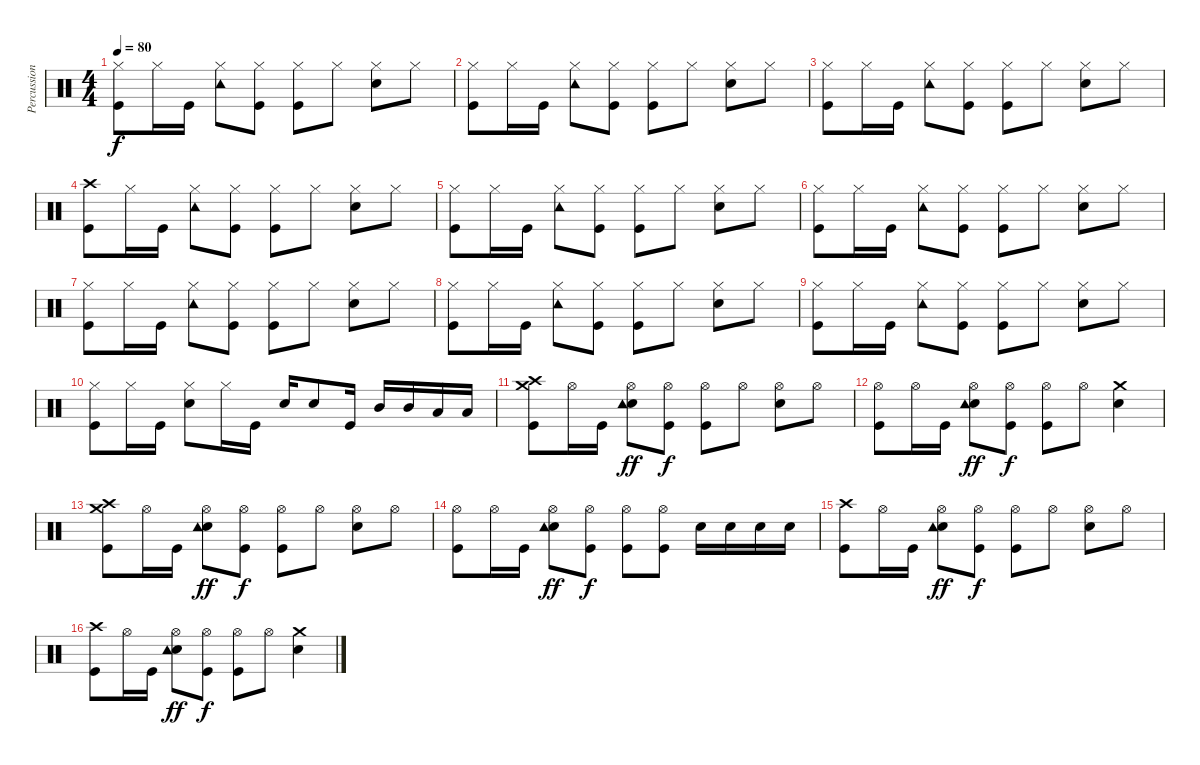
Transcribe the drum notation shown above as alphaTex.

\track ("Percussion" "Percussion") {instrument percussion}
\staff {score}
\articulation defaults
\ts (4 4)
\tempo 80
\clef neutral
\ks c
("Hi-Hat (closed)" "Kick (hit)").8{dy f} "Hi-Hat (closed)".16 "Kick (hit)".16 ("Tambourine (hit)" "Hi-Hat (closed)").8 ("Hi-Hat (closed)" "Kick (hit)").8 ("Hi-Hat (closed)" "Kick (hit)").8 "Hi-Hat (closed)".8 ("Electric Snare (hit)" "Hi-Hat (closed)").8 "Hi-Hat (closed)".8 |
("Hi-Hat (closed)" "Kick (hit)").8 "Hi-Hat (closed)".16 "Kick (hit)".16 ("Tambourine (hit)" "Hi-Hat (closed)").8 ("Hi-Hat (closed)" "Kick (hit)").8 ("Hi-Hat (closed)" "Kick (hit)").8 "Hi-Hat (closed)".8 ("Electric Snare (hit)" "Hi-Hat (closed)").8 "Hi-Hat (closed)".8 |
("Hi-Hat (closed)" "Kick (hit)").8 "Hi-Hat (closed)".16 "Kick (hit)".16 ("Tambourine (hit)" "Hi-Hat (closed)").8 ("Hi-Hat (closed)" "Kick (hit)").8 ("Hi-Hat (closed)" "Kick (hit)").8 "Hi-Hat (closed)".8 ("Electric Snare (hit)" "Hi-Hat (closed)").8 "Hi-Hat (closed)".8 |
("Crash high (hit)" "Kick (hit)").8 "Hi-Hat (closed)".16 "Kick (hit)".16 ("Tambourine (hit)" "Hi-Hat (closed)").8 ("Hi-Hat (closed)" "Kick (hit)").8 ("Hi-Hat (closed)" "Kick (hit)").8 "Hi-Hat (closed)".8 ("Electric Snare (hit)" "Hi-Hat (closed)").8 "Hi-Hat (closed)".8 |
("Hi-Hat (closed)" "Kick (hit)").8 "Hi-Hat (closed)".16 "Kick (hit)".16 ("Tambourine (hit)" "Hi-Hat (closed)").8 ("Hi-Hat (closed)" "Kick (hit)").8 ("Hi-Hat (closed)" "Kick (hit)").8 "Hi-Hat (closed)".8 ("Electric Snare (hit)" "Hi-Hat (closed)").8 "Hi-Hat (closed)".8 |
("Hi-Hat (closed)" "Kick (hit)").8 "Hi-Hat (closed)".16 "Kick (hit)".16 ("Tambourine (hit)" "Hi-Hat (closed)").8 ("Hi-Hat (closed)" "Kick (hit)").8 ("Hi-Hat (closed)" "Kick (hit)").8 "Hi-Hat (closed)".8 ("Electric Snare (hit)" "Hi-Hat (closed)").8 "Hi-Hat (closed)".8 |
("Hi-Hat (closed)" "Kick (hit)").8 "Hi-Hat (closed)".16 "Kick (hit)".16 ("Tambourine (hit)" "Hi-Hat (closed)").8 ("Hi-Hat (closed)" "Kick (hit)").8 ("Hi-Hat (closed)" "Kick (hit)").8 "Hi-Hat (closed)".8 ("Electric Snare (hit)" "Hi-Hat (closed)").8 "Hi-Hat (closed)".8 |
("Hi-Hat (closed)" "Kick (hit)").8 "Hi-Hat (closed)".16 "Kick (hit)".16 ("Tambourine (hit)" "Hi-Hat (closed)").8 ("Hi-Hat (closed)" "Kick (hit)").8 ("Hi-Hat (closed)" "Kick (hit)").8 "Hi-Hat (closed)".8 ("Electric Snare (hit)" "Hi-Hat (closed)").8 "Hi-Hat (closed)".8 |
("Hi-Hat (closed)" "Kick (hit)").8 "Hi-Hat (closed)".16 "Kick (hit)".16 ("Tambourine (hit)" "Hi-Hat (closed)").8 ("Hi-Hat (closed)" "Kick (hit)").8 ("Hi-Hat (closed)" "Kick (hit)").8 "Hi-Hat (closed)".8 ("Electric Snare (hit)" "Hi-Hat (closed)").8 "Hi-Hat (closed)".8 |
("Hi-Hat (closed)" "Kick (hit)").8 "Hi-Hat (closed)".16 "Kick (hit)".16 ("Electric Snare (hit)" "Hi-Hat (closed)").8 "Hi-Hat (closed)".16 "Kick (hit)".16 "Electric Snare (hit)".16 "Electric Snare (hit)".8 "Kick (hit)".16 "Mid Tom (hit)".16 "Mid Tom (hit)".16 "Low Tom (hit)".16 "Low Tom (hit)".16 |
("Crash high (hit)" "Crash medium (hit)" "Kick (hit)").8 "Hi-Hat (open)".16 "Kick (hit)".16 ("Electric Snare (hit)" "Hi-Hat (open)" "Tambourine (hit)").8{dy ff} ("Hi-Hat (open)" "Kick (hit)").8{dy f} ("Hi-Hat (open)" "Kick (hit)").8 "Hi-Hat (open)".8 ("Electric Snare (hit)" "Hi-Hat (open)").8 "Hi-Hat (open)".8 |
("Hi-Hat (open)" "Kick (hit)").8 "Hi-Hat (open)".16 "Kick (hit)".16 ("Electric Snare (hit)" "Hi-Hat (open)" "Tambourine (hit)").8{dy ff} ("Hi-Hat (open)" "Kick (hit)").8{dy f} ("Hi-Hat (open)" "Kick (hit)").8 "Hi-Hat (open)".8 ("Electric Snare (hit)" "Crash medium (hit)").4 |
("Crash high (hit)" "Crash medium (hit)" "Kick (hit)").8 "Hi-Hat (open)".16 "Kick (hit)".16 ("Electric Snare (hit)" "Hi-Hat (open)" "Tambourine (hit)").8{dy ff} ("Hi-Hat (open)" "Kick (hit)").8{dy f} ("Hi-Hat (open)" "Kick (hit)").8 "Hi-Hat (open)".8 ("Electric Snare (hit)" "Hi-Hat (open)").8 "Hi-Hat (open)".8 |
("Hi-Hat (open)" "Kick (hit)").8 "Hi-Hat (open)".16 "Kick (hit)".16 ("Electric Snare (hit)" "Hi-Hat (open)" "Tambourine (hit)").8{dy ff} ("Hi-Hat (open)" "Kick (hit)").8{dy f} ("Hi-Hat (open)" "Kick (hit)").8 ("Hi-Hat (open)" "Kick (hit)").8 "Electric Snare (hit)".16 "Electric Snare (hit)".16 "Electric Snare (hit)".16 "Electric Snare (hit)".16 |
("Crash high (hit)" "Kick (hit)").8 "Hi-Hat (open)".16 "Kick (hit)".16 ("Electric Snare (hit)" "Hi-Hat (open)" "Tambourine (hit)").8{dy ff} ("Hi-Hat (open)" "Kick (hit)").8{dy f} ("Hi-Hat (open)" "Kick (hit)").8 "Hi-Hat (open)".8 ("Electric Snare (hit)" "Hi-Hat (open)").8 "Hi-Hat (open)".8 |
("Crash high (hit)" "Kick (hit)").8 "Hi-Hat (open)".16 "Kick (hit)".16 ("Electric Snare (hit)" "Hi-Hat (open)" "Tambourine (hit)").8{dy ff} ("Hi-Hat (open)" "Kick (hit)").8{dy f} ("Hi-Hat (open)" "Kick (hit)").8 "Hi-Hat (open)".8 ("Electric Snare (hit)" "Crash medium (hit)").4
